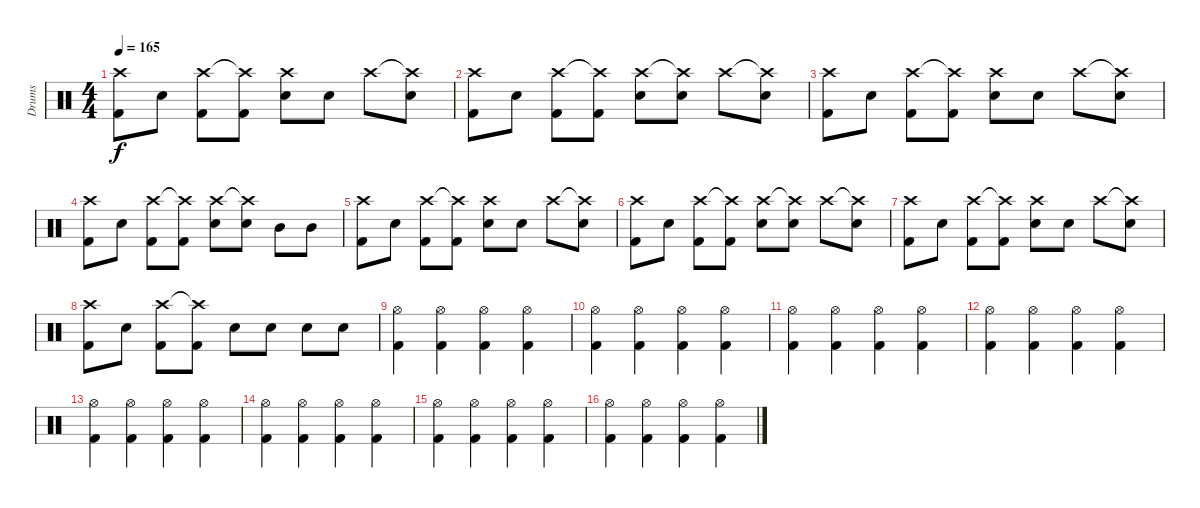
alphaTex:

\track ("Drums" "Drums") {instrument percussion}
\staff {score}
\articulation defaults
\ts (4 4)
\tempo 165
\clef neutral
\ks c
("Crash high (hit)" "Kick (hit) 2").8{dy f} "Snare (hit) 2".8 ("Crash high (hit)" "Kick (hit) 2").8 ("Crash high (hit)"{t} "Kick (hit) 2").8 ("Crash high (hit)" "Snare (hit) 2").8 "Snare (hit) 2".8 "Crash high (hit)".8 ("Crash high (hit)"{t} "Snare (hit) 2").8 |
("Crash high (hit)" "Kick (hit) 2").8 "Snare (hit) 2".8 ("Crash high (hit)" "Kick (hit) 2").8 ("Crash high (hit)"{t} "Kick (hit) 2").8 ("Crash high (hit)" "Snare (hit) 2").8 ("Crash high (hit)"{t} "Snare (hit) 2").8 "Crash high (hit)".8 ("Crash high (hit)"{t} "Snare (hit) 2").8 |
("Crash high (hit)" "Kick (hit) 2").8 "Snare (hit) 2".8 ("Crash high (hit)" "Kick (hit) 2").8 ("Crash high (hit)"{t} "Kick (hit) 2").8 ("Crash high (hit)" "Snare (hit) 2").8 "Snare (hit) 2".8 "Crash high (hit)".8 ("Crash high (hit)"{t} "Snare (hit) 2").8 |
("Crash high (hit)" "Kick (hit) 2").8 "Snare (hit) 2".8 ("Crash high (hit)" "Kick (hit) 2").8 ("Crash high (hit)"{t} "Kick (hit) 2").8 ("Crash high (hit)" "Snare (hit) 2").8 ("Crash high (hit)"{t} "Snare (hit) 2").8 "Mid Tom (hit)".8 "Mid Tom (hit)".8 |
("Crash high (hit)" "Kick (hit) 2").8 "Snare (hit) 2".8 ("Crash high (hit)" "Kick (hit) 2").8 ("Crash high (hit)"{t} "Kick (hit) 2").8 ("Crash high (hit)" "Snare (hit) 2").8 "Snare (hit) 2".8 "Crash high (hit)".8 ("Crash high (hit)"{t} "Snare (hit) 2").8 |
("Crash high (hit)" "Kick (hit) 2").8 "Snare (hit) 2".8 ("Crash high (hit)" "Kick (hit) 2").8 ("Crash high (hit)"{t} "Kick (hit) 2").8 ("Crash high (hit)" "Snare (hit) 2").8 ("Crash high (hit)"{t} "Snare (hit) 2").8 "Crash high (hit)".8 ("Crash high (hit)"{t} "Snare (hit) 2").8 |
("Crash high (hit)" "Kick (hit) 2").8 "Snare (hit) 2".8 ("Crash high (hit)" "Kick (hit) 2").8 ("Crash high (hit)"{t} "Kick (hit) 2").8 ("Crash high (hit)" "Snare (hit) 2").8 "Snare (hit) 2".8 "Crash high (hit)".8 ("Crash high (hit)"{t} "Snare (hit) 2").8 |
("Crash high (hit)" "Kick (hit) 2").8 "Snare (hit) 2".8 ("Crash high (hit)" "Kick (hit) 2").8 ("Crash high (hit)"{t} "Kick (hit) 2").8 "Snare (hit) 2".8 "Snare (hit) 2".8 "Snare (hit) 2".8 "Snare (hit) 2".8 |
("Hi-Hat (open)" "Kick (hit) 2").4 ("Hi-Hat (open)" "Kick (hit) 2").4 ("Hi-Hat (open)" "Kick (hit) 2").4 ("Hi-Hat (open)" "Kick (hit) 2").4 |
("Hi-Hat (open)" "Kick (hit) 2").4 ("Hi-Hat (open)" "Kick (hit) 2").4 ("Hi-Hat (open)" "Kick (hit) 2").4 ("Hi-Hat (open)" "Kick (hit) 2").4 |
("Hi-Hat (open)" "Kick (hit) 2").4 ("Hi-Hat (open)" "Kick (hit) 2").4 ("Hi-Hat (open)" "Kick (hit) 2").4 ("Hi-Hat (open)" "Kick (hit) 2").4 |
("Hi-Hat (open)" "Kick (hit) 2").4 ("Hi-Hat (open)" "Kick (hit) 2").4 ("Hi-Hat (open)" "Kick (hit) 2").4 ("Hi-Hat (open)" "Kick (hit) 2").4 |
("Hi-Hat (open)" "Kick (hit) 2").4 ("Hi-Hat (open)" "Kick (hit) 2").4 ("Hi-Hat (open)" "Kick (hit) 2").4 ("Hi-Hat (open)" "Kick (hit) 2").4 |
("Hi-Hat (open)" "Kick (hit) 2").4 ("Hi-Hat (open)" "Kick (hit) 2").4 ("Hi-Hat (open)" "Kick (hit) 2").4 ("Hi-Hat (open)" "Kick (hit) 2").4 |
("Hi-Hat (open)" "Kick (hit) 2").4 ("Hi-Hat (open)" "Kick (hit) 2").4 ("Hi-Hat (open)" "Kick (hit) 2").4 ("Hi-Hat (open)" "Kick (hit) 2").4 |
("Hi-Hat (open)" "Kick (hit) 2").4 ("Hi-Hat (open)" "Kick (hit) 2").4 ("Hi-Hat (open)" "Kick (hit) 2").4 ("Hi-Hat (open)" "Kick (hit) 2").4
